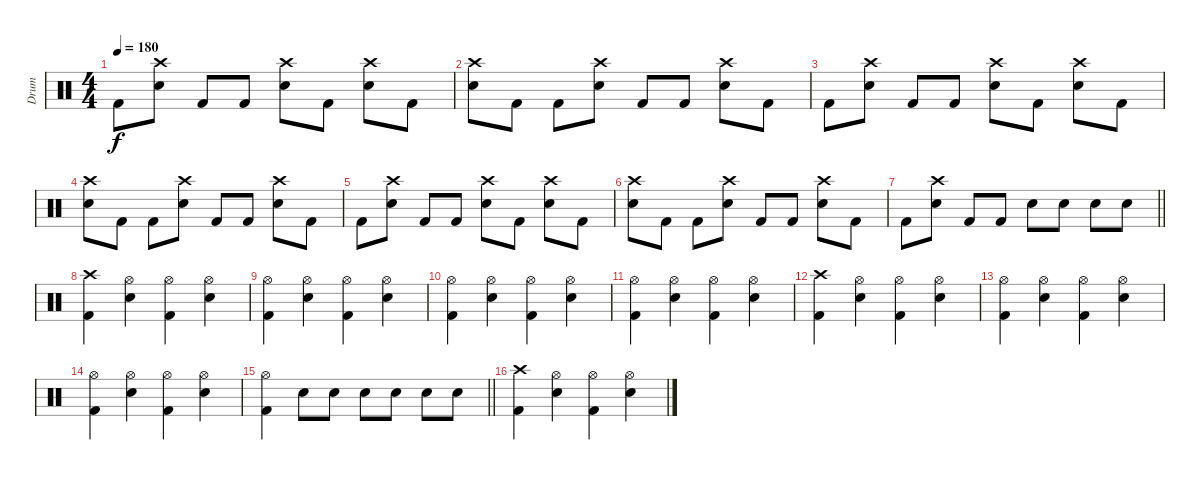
\track ("Drum" "Drum") {instrument percussion}
\staff {score}
\articulation defaults
\ts (4 4)
\tempo 180
\clef neutral
\ks c "Kick (hit) 2".8{dy f}
("Crash high (hit)" "Electric Snare (hit)").8 "Kick (hit) 2".8 "Kick (hit) 2".8 ("Crash high (hit)" "Electric Snare (hit)").8 "Kick (hit) 2".8 ("Crash high (hit)" "Electric Snare (hit)").8 "Kick (hit) 2".8 |
("Crash high (hit)" "Electric Snare (hit)").8 "Kick (hit) 2".8 "Kick (hit) 2".8 ("Crash high (hit)" "Electric Snare (hit)").8 "Kick (hit) 2".8 "Kick (hit) 2".8 ("Crash high (hit)" "Electric Snare (hit)").8 "Kick (hit) 2".8 |
"Kick (hit) 2".8 ("Crash high (hit)" "Electric Snare (hit)").8 "Kick (hit) 2".8 "Kick (hit) 2".8 ("Crash high (hit)" "Electric Snare (hit)").8 "Kick (hit) 2".8 ("Crash high (hit)" "Electric Snare (hit)").8 "Kick (hit) 2".8 |
("Crash high (hit)" "Electric Snare (hit)").8 "Kick (hit) 2".8 "Kick (hit) 2".8 ("Crash high (hit)" "Electric Snare (hit)").8 "Kick (hit) 2".8 "Kick (hit) 2".8 ("Crash high (hit)" "Electric Snare (hit)").8 "Kick (hit) 2".8 |
"Kick (hit) 2".8 ("Crash high (hit)" "Electric Snare (hit)").8 "Kick (hit) 2".8 "Kick (hit) 2".8 ("Crash high (hit)" "Electric Snare (hit)").8 "Kick (hit) 2".8 ("Crash high (hit)" "Electric Snare (hit)").8 "Kick (hit) 2".8 |
("Crash high (hit)" "Electric Snare (hit)").8 "Kick (hit) 2".8 "Kick (hit) 2".8 ("Crash high (hit)" "Electric Snare (hit)").8 "Kick (hit) 2".8 "Kick (hit) 2".8 ("Crash high (hit)" "Electric Snare (hit)").8 "Kick (hit) 2".8 |
\barLineRight lightlight "Kick (hit) 2".8
("Crash high (hit)" "Electric Snare (hit)").8 "Kick (hit) 2".8 "Kick (hit) 2".8 "Electric Snare (hit)".8 "Electric Snare (hit)".8 "Electric Snare (hit)".8 "Electric Snare (hit)".8 |
("Crash high (hit)" "Kick (hit) 2").4 ("Hi-Hat (open)" "Electric Snare (hit)").4 ("Hi-Hat (open)" "Kick (hit) 2").4 ("Hi-Hat (open)" "Electric Snare (hit)").4 |
("Hi-Hat (open)" "Kick (hit) 2").4 ("Hi-Hat (open)" "Electric Snare (hit)").4 ("Hi-Hat (open)" "Kick (hit) 2").4 ("Hi-Hat (open)" "Electric Snare (hit)").4 |
("Hi-Hat (open)" "Kick (hit) 2").4 ("Hi-Hat (open)" "Electric Snare (hit)").4 ("Hi-Hat (open)" "Kick (hit) 2").4 ("Hi-Hat (open)" "Electric Snare (hit)").4 |
("Hi-Hat (open)" "Kick (hit) 2").4 ("Hi-Hat (open)" "Electric Snare (hit)").4 ("Hi-Hat (open)" "Kick (hit) 2").4 ("Hi-Hat (open)" "Electric Snare (hit)").4 |
("Crash high (hit)" "Kick (hit) 2").4 ("Hi-Hat (open)" "Electric Snare (hit)").4 ("Hi-Hat (open)" "Kick (hit) 2").4 ("Hi-Hat (open)" "Electric Snare (hit)").4 |
("Hi-Hat (open)" "Kick (hit) 2").4 ("Hi-Hat (open)" "Electric Snare (hit)").4 ("Hi-Hat (open)" "Kick (hit) 2").4 ("Hi-Hat (open)" "Electric Snare (hit)").4 |
("Hi-Hat (open)" "Kick (hit) 2").4 ("Hi-Hat (open)" "Electric Snare (hit)").4 ("Hi-Hat (open)" "Kick (hit) 2").4 ("Hi-Hat (open)" "Electric Snare (hit)").4 |
\barLineRight lightlight
("Hi-Hat (open)" "Kick (hit) 2").4 "Electric Snare (hit)".8 "Electric Snare (hit)".8 "Electric Snare (hit)".8 "Electric Snare (hit)".8 "Electric Snare (hit)".8 "Electric Snare (hit)".8 |
("Crash high (hit)" "Kick (hit) 2").4 ("Hi-Hat (open)" "Electric Snare (hit)").4 ("Hi-Hat (open)" "Kick (hit) 2").4 ("Hi-Hat (open)" "Electric Snare (hit)").4
